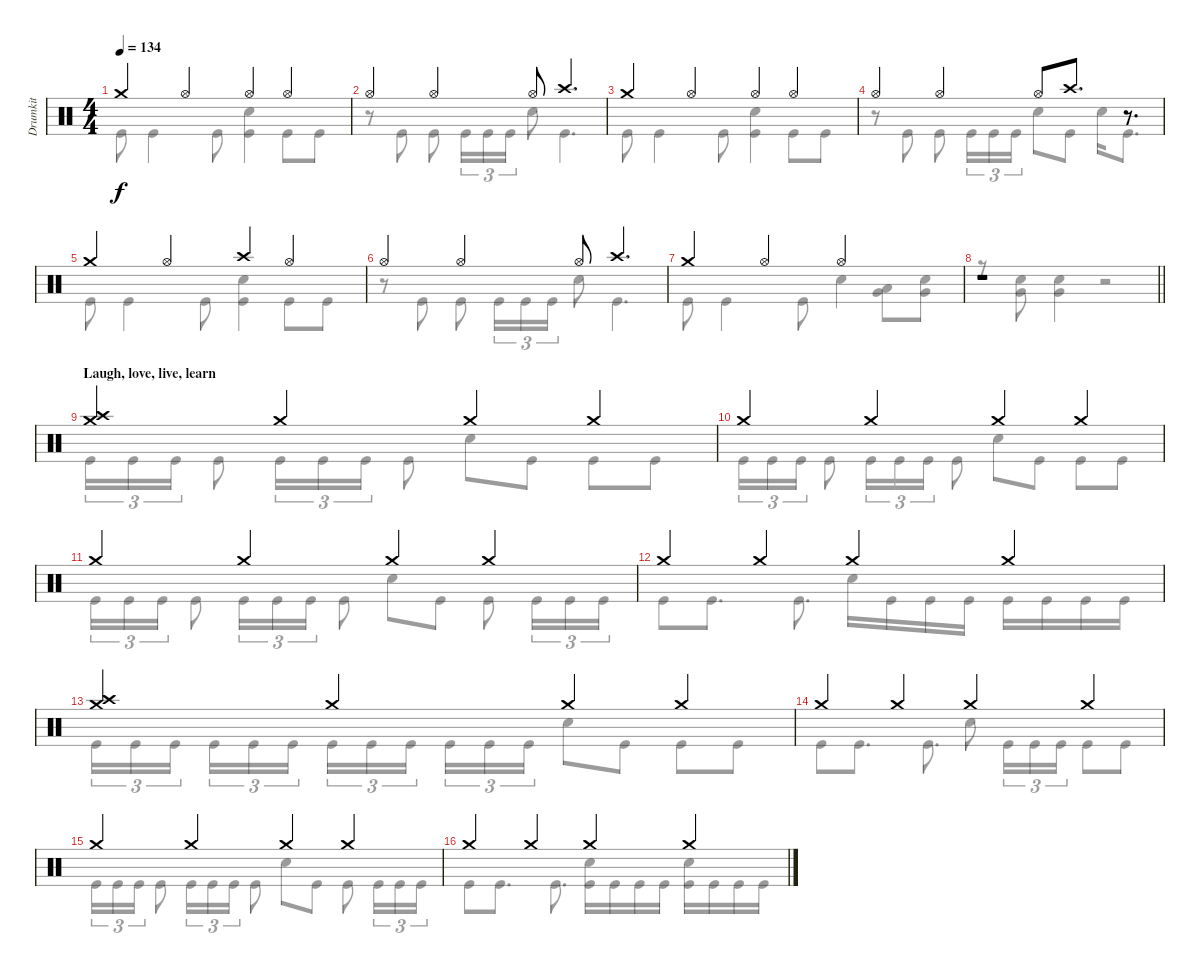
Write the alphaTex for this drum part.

\track ("Drumkit" "Drumkit") {instrument percussion}
\staff {score}
\articulation defaults
\voice
\ts (4 4)
\tempo 134
\clef neutral
\ks c "Crash medium (hit)".4{dy f} "Hi-Hat (open)".4 "Hi-Hat (open)".4 "Hi-Hat (open)".4
|
"Hi-Hat (open)".4 "Hi-Hat (open)".4 "Hi-Hat (open)".8 "Crash high (hit)".4{d} |
"Crash medium (hit)".4 "Hi-Hat (open)".4 "Hi-Hat (open)".4 "Hi-Hat (open)".4 |
"Hi-Hat (open)".4 "Hi-Hat (open)".4 "Hi-Hat (open)".8 "Crash high (hit)".8{d} r.8{d} |
"Crash medium (hit)".4 "Hi-Hat (open)".4 "Crash high (hit)".4 "Hi-Hat (open)".4 |
"Hi-Hat (open)".4 "Hi-Hat (open)".4 "Hi-Hat (open)".8 "Crash high (hit)".4{d} |
"Crash medium (hit)".4 "Hi-Hat (open)".4 "Hi-Hat (open)".2 |
\barLineRight lightlight
r.1 |
\section ("" "Laugh, love, live, learn")
("Crash medium (hit)" "Crash high (hit)").4 "Crash medium (hit)".4 "Crash medium (hit)".4 "Crash medium (hit)".4 |
"Crash medium (hit)".4 "Crash medium (hit)".4 "Crash medium (hit)".4 "Crash medium (hit)".4 |
"Crash medium (hit)".4 "Crash medium (hit)".4 "Crash medium (hit)".4 "Crash medium (hit)".4 |
"Crash medium (hit)".4 "Crash medium (hit)".4 "Crash medium (hit)".4 "Crash medium (hit)".4 |
("Crash medium (hit)" "Crash high (hit)").4 "Crash medium (hit)".4 "Crash medium (hit)".4 "Crash medium (hit)".4 |
"Crash medium (hit)".4 "Crash medium (hit)".4 "Crash medium (hit)".4 "Crash medium (hit)".4 |
"Crash medium (hit)".4 "Crash medium (hit)".4 "Crash medium (hit)".4 "Crash medium (hit)".4 |
"Crash medium (hit)".4 "Crash medium (hit)".4 "Crash medium (hit)".4 "Crash medium (hit)".4
\voice
\clef neutral
\ottava regular
\simile none
\ks c "Kick (hit)".8{dy f} "Kick (hit)".4 "Kick (hit)".8
("Snare (hit) 2" "Kick (hit)").4 "Kick (hit)".8 "Kick (hit)".8 |
r.8 "Kick (hit)".8 "Kick (hit)".8 "Kick (hit)".16{tu (3 2)} "Kick (hit)".16{tu (3 2)} "Kick (hit)".16{tu (3 2)} "Snare (hit) 2".8 "Kick (hit)".4{d} |
"Kick (hit)".8 "Kick (hit)".4 "Kick (hit)".8 ("Snare (hit) 2" "Kick (hit)").4 "Kick (hit)".8 "Kick (hit)".8 |
r.8 "Kick (hit)".8 "Kick (hit)".8 "Kick (hit)".16{tu (3 2)} "Kick (hit)".16{tu (3 2)} "Kick (hit)".16{tu (3 2)} "Snare (hit) 2".8 "Kick (hit)".8 "Snare (hit) 2".16 "Kick (hit)".8{d} |
"Kick (hit)".8 "Kick (hit)".4 "Kick (hit)".8 ("Snare (hit) 2" "Kick (hit)").4 "Kick (hit)".8 "Kick (hit)".8 |
r.8 "Kick (hit)".8 "Kick (hit)".8 "Kick (hit)".16{tu (3 2)} "Kick (hit)".16{tu (3 2)} "Kick (hit)".16{tu (3 2)} "Snare (hit) 2".8 "Kick (hit)".4{d} |
"Kick (hit)".8 "Kick (hit)".4 "Kick (hit)".8 "Snare (hit) 2".4 ("Low Tom (hit)" "Very Low Tom (hit)").8 ("Snare (hit) 2" "Very Low Tom (hit)").8 |
\barLineRight lightlight
r.8 ("Snare (hit) 2" "Very Low Tom (hit)").8 ("Snare (hit) 2" "Very Low Tom (hit)").4 r.2 |
"Kick (hit)".16{tu (3 2)} "Kick (hit)".16{tu (3 2)} "Kick (hit)".16{tu (3 2)} "Kick (hit)".8 "Kick (hit)".16{tu (3 2)} "Kick (hit)".16{tu (3 2)} "Kick (hit)".16{tu (3 2)} "Kick (hit)".8 "Snare (hit) 2".8 "Kick (hit)".8 "Kick (hit)".8 "Kick (hit)".8 |
"Kick (hit)".16{tu (3 2)} "Kick (hit)".16{tu (3 2)} "Kick (hit)".16{tu (3 2)} "Kick (hit)".8 "Kick (hit)".16{tu (3 2)} "Kick (hit)".16{tu (3 2)} "Kick (hit)".16{tu (3 2)} "Kick (hit)".8 "Snare (hit) 2".8 "Kick (hit)".8 "Kick (hit)".8 "Kick (hit)".8 |
"Kick (hit)".16{tu (3 2)} "Kick (hit)".16{tu (3 2)} "Kick (hit)".16{tu (3 2)} "Kick (hit)".8 "Kick (hit)".16{tu (3 2)} "Kick (hit)".16{tu (3 2)} "Kick (hit)".16{tu (3 2)} "Kick (hit)".8 "Snare (hit) 2".8 "Kick (hit)".8 "Kick (hit)".8 "Kick (hit)".16{tu (3 2)} "Kick (hit)".16{tu (3 2)} "Kick (hit)".16{tu (3 2)} |
"Kick (hit)".8 "Kick (hit)".8{d} "Kick (hit)".8{d} "Snare (hit) 2".16 "Kick (hit)".16 "Kick (hit)".16 "Kick (hit)".16 "Kick (hit)".16 "Kick (hit)".16 "Kick (hit)".16 "Kick (hit)".16 |
"Kick (hit)".16{tu (3 2)} "Kick (hit)".16{tu (3 2)} "Kick (hit)".16{tu (3 2) beam splitsecondary} "Kick (hit)".16{tu (3 2)} "Kick (hit)".16{tu (3 2)} "Kick (hit)".16{tu (3 2)} "Kick (hit)".16{tu (3 2)} "Kick (hit)".16{tu (3 2)} "Kick (hit)".16{tu (3 2) beam splitsecondary} "Kick (hit)".16{tu (3 2)} "Kick (hit)".16{tu (3 2)} "Kick (hit)".16{tu (3 2)} "Snare (hit) 2".8 "Kick (hit)".8 "Kick (hit)".8 "Kick (hit)".8 |
"Kick (hit)".8 "Kick (hit)".8{d} "Kick (hit)".8{d} "Snare (hit) 2".8 "Kick (hit)".16{tu (3 2)} "Kick (hit)".16{tu (3 2)} "Kick (hit)".16{tu (3 2)} "Kick (hit)".8 "Kick (hit)".8 |
"Kick (hit)".16{tu (3 2)} "Kick (hit)".16{tu (3 2)} "Kick (hit)".16{tu (3 2)} "Kick (hit)".8 "Kick (hit)".16{tu (3 2)} "Kick (hit)".16{tu (3 2)} "Kick (hit)".16{tu (3 2)} "Kick (hit)".8 "Snare (hit) 2".8 "Kick (hit)".8 "Kick (hit)".8 "Kick (hit)".16{tu (3 2)} "Kick (hit)".16{tu (3 2)} "Kick (hit)".16{tu (3 2)} |
"Kick (hit)".8 "Kick (hit)".8{d} "Kick (hit)".8{d} ("Snare (hit) 2" "Kick (hit)").16 "Kick (hit)".16 "Kick (hit)".16 "Kick (hit)".16 ("Snare (hit) 2" "Kick (hit)").16 "Kick (hit)".16 "Kick (hit)".16 "Kick (hit)".16
